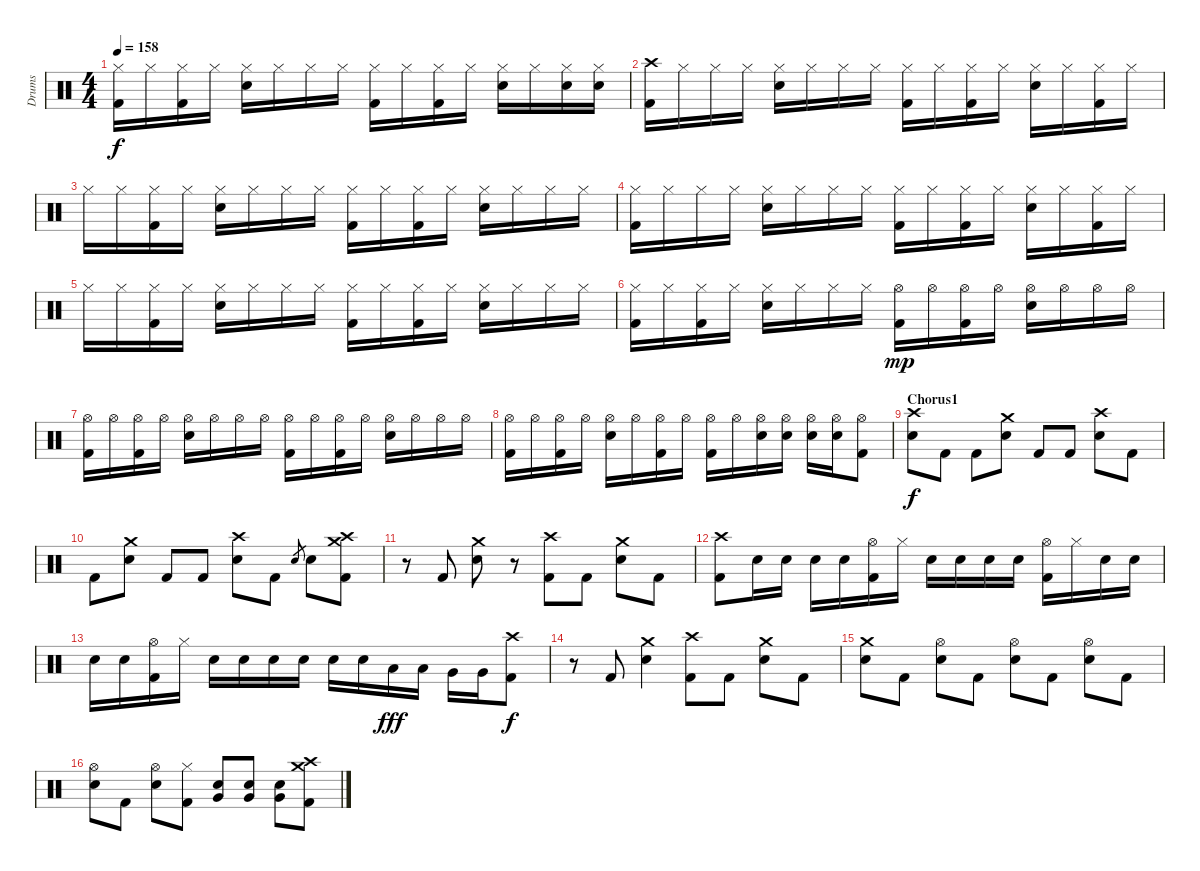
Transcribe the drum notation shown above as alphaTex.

\track ("Drums" "Drums") {instrument percussion}
\staff {score}
\articulation defaults
\ts (4 4)
\tempo 158
\clef neutral
\ks c
("Hi-Hat (closed)" "Kick (hit) 2").16{dy f} "Hi-Hat (closed)".16 ("Hi-Hat (closed)" "Kick (hit) 2").16 "Hi-Hat (closed)".16 ("Hi-Hat (closed)" "Snare (hit) 2").16 "Hi-Hat (closed)".16 "Hi-Hat (closed)".16 "Hi-Hat (closed)".16 ("Hi-Hat (closed)" "Kick (hit) 2").16 "Hi-Hat (closed)".16 ("Hi-Hat (closed)" "Kick (hit) 2").16 "Hi-Hat (closed)".16 ("Hi-Hat (closed)" "Snare (hit) 2").16 "Hi-Hat (closed)".16 ("Hi-Hat (closed)" "Snare (hit) 2").16 ("Hi-Hat (closed)" "Snare (hit) 2").16 |
("Crash high (hit)" "Kick (hit) 2").16 "Hi-Hat (closed)".16 "Hi-Hat (closed)".16 "Hi-Hat (closed)".16 ("Hi-Hat (closed)" "Snare (hit) 2").16 "Hi-Hat (closed)".16 "Hi-Hat (closed)".16 "Hi-Hat (closed)".16 ("Hi-Hat (closed)" "Kick (hit) 2").16 "Hi-Hat (closed)".16 ("Hi-Hat (closed)" "Kick (hit) 2").16 "Hi-Hat (closed)".16 ("Hi-Hat (closed)" "Snare (hit) 2").16 "Hi-Hat (closed)".16 ("Hi-Hat (closed)" "Kick (hit) 2").16 "Hi-Hat (closed)".16 |
"Hi-Hat (closed)".16 "Hi-Hat (closed)".16 ("Hi-Hat (closed)" "Kick (hit) 2").16 "Hi-Hat (closed)".16 ("Hi-Hat (closed)" "Snare (hit) 2").16 "Hi-Hat (closed)".16 "Hi-Hat (closed)".16 "Hi-Hat (closed)".16 ("Hi-Hat (closed)" "Kick (hit) 2").16 "Hi-Hat (closed)".16 ("Hi-Hat (closed)" "Kick (hit) 2").16 "Hi-Hat (closed)".16 ("Hi-Hat (closed)" "Snare (hit) 2").16 "Hi-Hat (closed)".16 "Hi-Hat (closed)".16 "Hi-Hat (closed)".16 |
("Hi-Hat (closed)" "Kick (hit) 2").16 "Hi-Hat (closed)".16 "Hi-Hat (closed)".16 "Hi-Hat (closed)".16 ("Hi-Hat (closed)" "Snare (hit) 2").16 "Hi-Hat (closed)".16 "Hi-Hat (closed)".16 "Hi-Hat (closed)".16 ("Hi-Hat (closed)" "Kick (hit) 2").16 "Hi-Hat (closed)".16 ("Hi-Hat (closed)" "Kick (hit) 2").16 "Hi-Hat (closed)".16 ("Hi-Hat (closed)" "Snare (hit) 2").16 "Hi-Hat (closed)".16 ("Hi-Hat (closed)" "Kick (hit) 2").16 "Hi-Hat (closed)".16 |
"Hi-Hat (closed)".16 "Hi-Hat (closed)".16 ("Hi-Hat (closed)" "Kick (hit) 2").16 "Hi-Hat (closed)".16 ("Hi-Hat (closed)" "Snare (hit) 2").16 "Hi-Hat (closed)".16 "Hi-Hat (closed)".16 "Hi-Hat (closed)".16 ("Hi-Hat (closed)" "Kick (hit) 2").16 "Hi-Hat (closed)".16 ("Hi-Hat (closed)" "Kick (hit) 2").16 "Hi-Hat (closed)".16 ("Hi-Hat (closed)" "Snare (hit) 2").16 "Hi-Hat (closed)".16 "Hi-Hat (closed)".16 "Hi-Hat (closed)".16 |
("Hi-Hat (closed)" "Kick (hit) 2").16 "Hi-Hat (closed)".16 ("Hi-Hat (closed)" "Kick (hit) 2").16 "Hi-Hat (closed)".16 ("Hi-Hat (closed)" "Snare (hit) 2").16 "Hi-Hat (closed)".16 "Hi-Hat (closed)".16 "Hi-Hat (closed)".16 ("Hi-Hat (open)" "Kick (hit) 2").16{dy mp} "Hi-Hat (open)".16 ("Hi-Hat (open)" "Kick (hit) 2").16 "Hi-Hat (open)".16 ("Hi-Hat (open)" "Snare (hit) 2").16 "Hi-Hat (open)".16 "Hi-Hat (open)".16 "Hi-Hat (open)".16 |
("Hi-Hat (open)" "Kick (hit) 2").16 "Hi-Hat (open)".16 ("Hi-Hat (open)" "Kick (hit) 2").16 "Hi-Hat (open)".16 ("Hi-Hat (open)" "Snare (hit) 2").16 "Hi-Hat (open)".16 "Hi-Hat (open)".16 "Hi-Hat (open)".16 ("Hi-Hat (open)" "Kick (hit) 2").16 "Hi-Hat (open)".16 ("Hi-Hat (open)" "Kick (hit) 2").16 "Hi-Hat (open)".16 ("Hi-Hat (open)" "Snare (hit) 2").16 "Hi-Hat (open)".16 "Hi-Hat (open)".16 "Hi-Hat (open)".16 |
("Hi-Hat (open)" "Kick (hit) 2").16 "Hi-Hat (open)".16 ("Hi-Hat (open)" "Kick (hit) 2").16 "Hi-Hat (open)".16 ("Hi-Hat (open)" "Snare (hit) 2").16 "Hi-Hat (open)".16 ("Hi-Hat (open)" "Kick (hit) 2").16 "Hi-Hat (open)".16 ("Hi-Hat (open)" "Kick (hit) 2").16 "Hi-Hat (open)".16 ("Hi-Hat (open)" "Snare (hit) 2").16 ("Hi-Hat (open)" "Snare (hit) 2").16 ("Hi-Hat (open)" "Snare (hit) 2").16 ("Hi-Hat (open)" "Snare (hit) 2").16 ("Hi-Hat (open)" "Kick (hit) 2").8 |
\section ("" "Chorus1")
("Crash high (hit)" "Snare (hit) 2").8{dy f} "Kick (hit) 2".8 "Kick (hit) 2".8 ("Crash medium (hit)" "Snare (hit) 2").8 "Kick (hit) 2".8 "Kick (hit) 2".8 ("Crash high (hit)" "Snare (hit) 2").8 "Kick (hit) 2".8 |
"Kick (hit) 2".8 ("Crash medium (hit)" "Snare (hit) 2").8 "Kick (hit) 2".8 "Kick (hit) 2".8 ("Crash high (hit)" "Snare (hit) 2").8 "Kick (hit) 2".8 "Snare (hit) 2".8{gr} "Snare (hit) 2".8 ("Crash high (hit)" "Crash medium (hit)" "Kick (hit) 2").8 |
r.8 "Kick (hit) 2".8 ("Crash medium (hit)" "Snare (hit) 2").8 r.8 ("Crash high (hit)" "Kick (hit) 2").8 "Kick (hit) 2".8 ("Crash medium (hit)" "Snare (hit) 2").8 "Kick (hit) 2".8 |
("Crash high (hit)" "Kick (hit) 2").8 "Snare (hit) 2".16 "Snare (hit) 2".16 "Snare (hit) 2".16 "Snare (hit) 2".16 ("Hi-Hat (open)" "Kick (hit) 2").16 "Hi-Hat (closed)".16 "Snare (hit) 2".16 "Snare (hit) 2".16 "Snare (hit) 2".16 "Snare (hit) 2".16 ("Hi-Hat (open)" "Kick (hit) 2").16 "Hi-Hat (closed)".16 "Snare (hit) 2".16 "Snare (hit) 2".16 |
"Snare (hit) 2".16 "Snare (hit) 2".16 ("Hi-Hat (open)" "Kick (hit) 2").16 "Hi-Hat (closed)".16 "Snare (hit) 2".16 "Snare (hit) 2".16 "Snare (hit) 2".16 "Snare (hit) 2".16 "Snare (hit) 2".16 "Snare (hit) 2".16 "Low Tom (hit)".16{dy fff} "Low Tom (hit)".16 "Very Low Tom (hit)".16 "Very Low Tom (hit)".16 ("Crash high (hit)" "Kick (hit) 2").8{dy f} |
r.8 "Kick (hit) 2".8 ("Crash medium (hit)" "Snare (hit) 2").4 ("Crash high (hit)" "Kick (hit) 2").8 "Kick (hit) 2".8 ("Crash medium (hit)" "Snare (hit) 2").8 "Kick (hit) 2".8 |
("Crash medium (hit)" "Snare (hit) 2").8 "Kick (hit) 2".8 ("Hi-Hat (open)" "Snare (hit) 2").8 "Kick (hit) 2".8 ("Hi-Hat (open)" "Snare (hit) 2").8 "Kick (hit) 2".8 ("Hi-Hat (open)" "Snare (hit) 2").8 "Kick (hit) 2".8 |
("Hi-Hat (open)" "Snare (hit) 2").8 "Kick (hit) 2".8 ("Hi-Hat (open)" "Snare (hit) 2").8 ("Hi-Hat (closed)" "Kick (hit) 2").8 ("Very Low Tom (hit)" "Snare (hit) 2").8 ("Very Low Tom (hit)" "Snare (hit) 2").8 ("Very Low Tom (hit)" "Snare (hit) 2").8 ("Crash high (hit)" "Crash medium (hit)" "Kick (hit) 2").8
